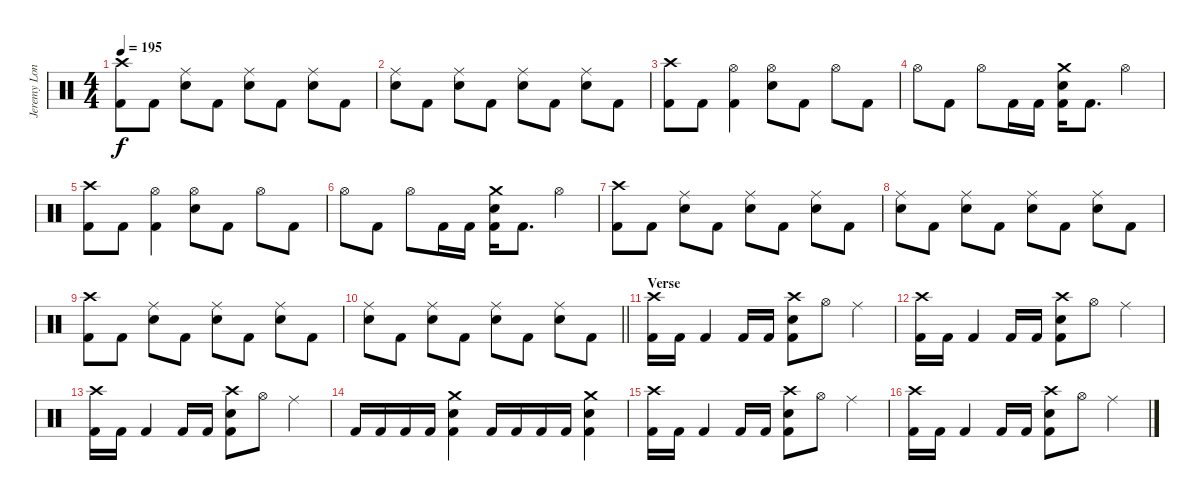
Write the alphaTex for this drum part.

\track ("Jeremy London" "Jeremy Lon") {instrument percussion}
\staff {score}
\articulation defaults
\ts (4 4)
\tempo 195
\clef neutral
\ks c
("Crash high (hit)" "Kick (hit) 2").8{dy f} "Kick (hit) 2".8 ("Ride (middle)" "Electric Snare (hit)").8 "Kick (hit) 2".8 ("Ride (middle)" "Electric Snare (hit)").8 "Kick (hit) 2".8 ("Ride (middle)" "Electric Snare (hit)").8 "Kick (hit) 2".8 |
("Ride (middle)" "Electric Snare (hit)").8 "Kick (hit) 2".8 ("Ride (middle)" "Electric Snare (hit)").8 "Kick (hit) 2".8 ("Ride (middle)" "Electric Snare (hit)").8 "Kick (hit) 2".8 ("Ride (middle)" "Electric Snare (hit)").8 "Kick (hit) 2".8 |
("Crash high (hit)" "Kick (hit) 2").8 "Kick (hit) 2".8 ("Hi-Hat (open)" "Kick (hit) 2").4 ("Hi-Hat (open)" "Electric Snare (hit)").8 "Kick (hit) 2".8 "Hi-Hat (open)".8 "Kick (hit) 2".8 |
"Hi-Hat (open)".8 "Kick (hit) 2".8 "Hi-Hat (open)".8 "Kick (hit) 2".16 "Kick (hit) 2".16 ("Crash medium (hit)" "Electric Snare (hit)" "Kick (hit) 2").16 "Kick (hit) 2".8{d} "Hi-Hat (open)".4 |
("Crash high (hit)" "Kick (hit) 2").8 "Kick (hit) 2".8 ("Hi-Hat (open)" "Kick (hit) 2").4 ("Hi-Hat (open)" "Electric Snare (hit)").8 "Kick (hit) 2".8 "Hi-Hat (open)".8 "Kick (hit) 2".8 |
"Hi-Hat (open)".8 "Kick (hit) 2".8 "Hi-Hat (open)".8 "Kick (hit) 2".16 "Kick (hit) 2".16 ("Crash medium (hit)" "Electric Snare (hit)" "Kick (hit) 2").16 "Kick (hit) 2".8{d} "Hi-Hat (open)".4 |
("Crash high (hit)" "Kick (hit) 2").8 "Kick (hit) 2".8 ("Ride (middle)" "Electric Snare (hit)").8 "Kick (hit) 2".8 ("Ride (middle)" "Electric Snare (hit)").8 "Kick (hit) 2".8 ("Ride (middle)" "Electric Snare (hit)").8 "Kick (hit) 2".8 |
("Ride (middle)" "Electric Snare (hit)").8 "Kick (hit) 2".8 ("Ride (middle)" "Electric Snare (hit)").8 "Kick (hit) 2".8 ("Ride (middle)" "Electric Snare (hit)").8 "Kick (hit) 2".8 ("Ride (middle)" "Electric Snare (hit)").8 "Kick (hit) 2".8 |
("Crash high (hit)" "Kick (hit) 2").8 "Kick (hit) 2".8 ("Ride (middle)" "Electric Snare (hit)").8 "Kick (hit) 2".8 ("Ride (middle)" "Electric Snare (hit)").8 "Kick (hit) 2".8 ("Ride (middle)" "Electric Snare (hit)").8 "Kick (hit) 2".8 |
\barLineRight lightlight
("Ride (middle)" "Electric Snare (hit)").8 "Kick (hit) 2".8 ("Ride (middle)" "Electric Snare (hit)").8 "Kick (hit) 2".8 ("Ride (middle)" "Electric Snare (hit)").8 "Kick (hit) 2".8 ("Ride (middle)" "Electric Snare (hit)").8 "Kick (hit) 2".8 |
\section ("" "Verse")
("Crash high (hit)" "Kick (hit) 2").16 "Kick (hit) 2".16 "Kick (hit) 2".4 "Kick (hit) 2".16 "Kick (hit) 2".16 ("Crash high (hit)" "Electric Snare (hit)" "Kick (hit) 2").8 "Hi-Hat (open)".8 "Ride (middle)".4 |
("Crash high (hit)" "Kick (hit) 2").16 "Kick (hit) 2".16 "Kick (hit) 2".4 "Kick (hit) 2".16 "Kick (hit) 2".16 ("Crash high (hit)" "Electric Snare (hit)" "Kick (hit) 2").8 "Hi-Hat (open)".8 "Ride (middle)".4 |
("Crash high (hit)" "Kick (hit) 2").16 "Kick (hit) 2".16 "Kick (hit) 2".4 "Kick (hit) 2".16 "Kick (hit) 2".16 ("Crash high (hit)" "Electric Snare (hit)" "Kick (hit) 2").8 "Hi-Hat (open)".8 "Ride (middle)".4 |
"Kick (hit) 2".16 "Kick (hit) 2".16 "Kick (hit) 2".16 "Kick (hit) 2".16 ("Crash medium (hit)" "Electric Snare (hit)" "Kick (hit) 2").4 "Kick (hit) 2".16 "Kick (hit) 2".16 "Kick (hit) 2".16 "Kick (hit) 2".16 ("Crash medium (hit)" "Electric Snare (hit)" "Kick (hit) 2").4 |
("Crash high (hit)" "Kick (hit) 2").16 "Kick (hit) 2".16 "Kick (hit) 2".4 "Kick (hit) 2".16 "Kick (hit) 2".16 ("Crash high (hit)" "Electric Snare (hit)" "Kick (hit) 2").8 "Hi-Hat (open)".8 "Ride (middle)".4 |
("Crash high (hit)" "Kick (hit) 2").16 "Kick (hit) 2".16 "Kick (hit) 2".4 "Kick (hit) 2".16 "Kick (hit) 2".16 ("Crash high (hit)" "Electric Snare (hit)" "Kick (hit) 2").8 "Hi-Hat (open)".8 "Ride (middle)".4
